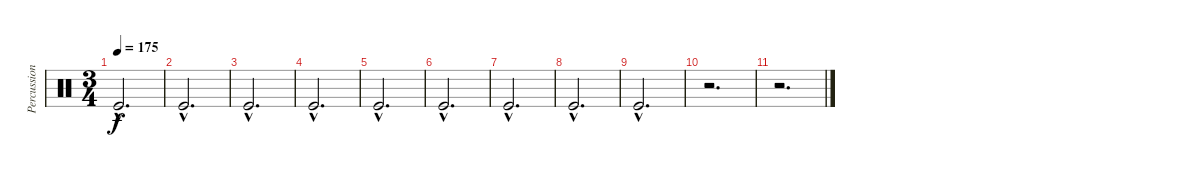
\track ("Percussion" "Percussion") {instrument percussion}
\staff {score}
\articulation defaults
\ts (3 4)
\tempo 175
\clef neutral
\ks c "Kick (hit)"{hac}.2{d dy f}
|
"Kick (hit)"{hac}.2{d} |
"Kick (hit)"{hac}.2{d} |
"Kick (hit)"{hac}.2{d} |
"Kick (hit)"{hac}.2{d} |
"Kick (hit)"{hac}.2{d} |
"Kick (hit)"{hac}.2{d} |
"Kick (hit)"{hac}.2{d} |
"Kick (hit)"{hac}.2{d} |
r.2{d} |
r.2{d}
